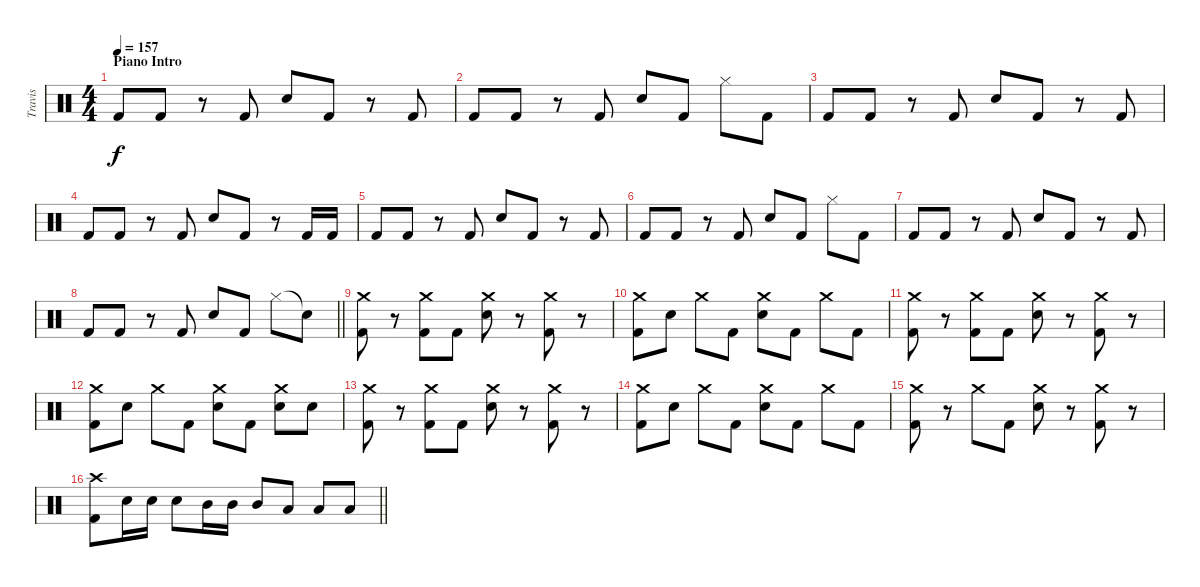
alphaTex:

\track ("Travis" "Travis") {instrument percussion}
\staff {score}
\articulation defaults
\ts (4 4)
\section ("" "Piano Intro")
\tempo 157
\clef neutral
\ks c "Kick (hit) 2".8{dy f volume 13} "Kick (hit) 2".8
r.8 "Kick (hit) 2".8 "Electric Snare (hit)".8 "Kick (hit) 2".8 r.8 "Kick (hit) 2".8 |
"Kick (hit) 2".8 "Kick (hit) 2".8 r.8 "Kick (hit) 2".8 "Electric Snare (hit)".8 "Kick (hit) 2".8 "Hi-Hat (closed)".8 "Kick (hit) 2".8 |
"Kick (hit) 2".8 "Kick (hit) 2".8 r.8 "Kick (hit) 2".8 "Electric Snare (hit)".8 "Kick (hit) 2".8 r.8 "Kick (hit) 2".8 |
"Kick (hit) 2".8 "Kick (hit) 2".8 r.8 "Kick (hit) 2".8 "Electric Snare (hit)".8 "Kick (hit) 2".8 r.8 "Kick (hit) 2".16 "Kick (hit) 2".16 |
"Kick (hit) 2".8 "Kick (hit) 2".8 r.8 "Kick (hit) 2".8 "Electric Snare (hit)".8 "Kick (hit) 2".8 r.8 "Kick (hit) 2".8 |
"Kick (hit) 2".8 "Kick (hit) 2".8 r.8 "Kick (hit) 2".8 "Electric Snare (hit)".8 "Kick (hit) 2".8 "Hi-Hat (closed)".8 "Kick (hit) 2".8 |
"Kick (hit) 2".8 "Kick (hit) 2".8 r.8 "Kick (hit) 2".8 "Electric Snare (hit)".8 "Kick (hit) 2".8 r.8 "Kick (hit) 2".8 |
\barLineRight lightlight "Kick (hit) 2".8 "Kick (hit) 2".8
r.8 "Kick (hit) 2".8 "Electric Snare (hit)".8 "Kick (hit) 2".8 "Hi-Hat (closed)".8 "Snare (hit)"{t}.8 |
\section ("" "")
("Crash medium (hit)" "Kick (hit) 2").8{volume 16} r.8 ("Crash medium (hit)" "Kick (hit) 2").8 "Kick (hit) 2".8 ("Crash medium (hit)" "Electric Snare (hit)").8 r.8 ("Crash medium (hit)" "Kick (hit) 2").8 r.8 |
("Crash medium (hit)" "Kick (hit) 2").8 "Electric Snare (hit)".8 "Crash medium (hit)".8 "Kick (hit) 2".8 ("Crash medium (hit)" "Electric Snare (hit)").8 "Kick (hit) 2".8 "Crash medium (hit)".8 "Kick (hit) 2".8 |
("Crash medium (hit)" "Kick (hit) 2").8 r.8 ("Crash medium (hit)" "Kick (hit) 2").8 "Kick (hit) 2".8 ("Crash medium (hit)" "Electric Snare (hit)").8 r.8 ("Crash medium (hit)" "Kick (hit) 2").8 r.8 |
("Crash medium (hit)" "Kick (hit) 2").8 "Electric Snare (hit)".8 "Crash medium (hit)".8 "Kick (hit) 2".8 ("Crash medium (hit)" "Electric Snare (hit)").8 "Kick (hit) 2".8 ("Crash medium (hit)" "Electric Snare (hit)").8 "Electric Snare (hit)".8 |
("Crash medium (hit)" "Kick (hit) 2").8 r.8 ("Crash medium (hit)" "Kick (hit) 2").8 "Kick (hit) 2".8 ("Crash medium (hit)" "Electric Snare (hit)").8 r.8 ("Crash medium (hit)" "Kick (hit) 2").8 r.8 |
("Crash medium (hit)" "Kick (hit) 2").8 "Electric Snare (hit)".8 "Crash medium (hit)".8 "Kick (hit) 2".8 ("Crash medium (hit)" "Electric Snare (hit)").8 "Kick (hit) 2".8 "Crash medium (hit)".8 "Kick (hit) 2".8 |
("Crash medium (hit)" "Kick (hit) 2").8 r.8 "Crash medium (hit)".8 "Kick (hit) 2".8 ("Crash medium (hit)" "Electric Snare (hit)").8 r.8 ("Crash medium (hit)" "Kick (hit) 2").8 r.8 |
\barLineRight lightlight
("Crash high (hit)" "Kick (hit) 2").8 "Electric Snare (hit)".16 "Electric Snare (hit)".16 "Electric Snare (hit)".8 "Mid Tom (hit)".16 "Mid Tom (hit)".16 "Mid Tom (hit)".8 "Low Tom (hit)".8 "Low Tom (hit)".8 "Low Tom (hit)".8
